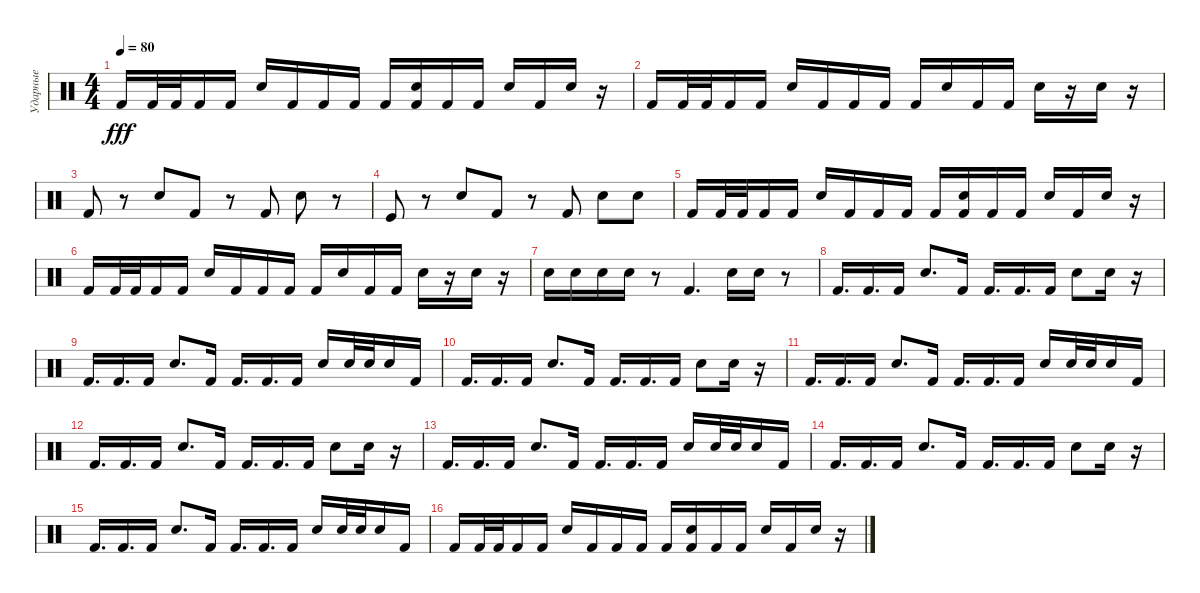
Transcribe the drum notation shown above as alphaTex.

\track ("Ударные" "Ударные") {instrument percussion}
\staff {score}
\articulation defaults
\ts (4 4)
\tempo 80
\clef neutral
\ks c "Kick (hit) 2".16{dy fff} "Kick (hit) 2".32 "Kick (hit) 2".32 "Kick (hit) 2".16 "Kick (hit) 2".16 "Electric Snare (hit)".16 "Kick (hit) 2".16 "Kick (hit) 2".16 "Kick (hit) 2".16 "Kick (hit) 2".16
("Kick (hit) 2" "Electric Snare (hit)").16 "Kick (hit) 2".16 "Kick (hit) 2".16 "Electric Snare (hit)".16 "Kick (hit) 2".16 "Electric Snare (hit)".16 r.16 |
"Kick (hit) 2".16 "Kick (hit) 2".32 "Kick (hit) 2".32 "Kick (hit) 2".16 "Kick (hit) 2".16 "Electric Snare (hit)".16 "Kick (hit) 2".16 "Kick (hit) 2".16 "Kick (hit) 2".16 "Kick (hit) 2".16 "Electric Snare (hit)".16 "Kick (hit) 2".16 "Kick (hit) 2".16 "Electric Snare (hit)".16 r.16 "Electric Snare (hit)".16 r.16 |
"Kick (hit) 2".8 r.8 "Electric Snare (hit)".8 "Kick (hit) 2".8 r.8 "Kick (hit) 2".8 "Electric Snare (hit)".8 r.8 |
"Kick (hit)".8 r.8 "Electric Snare (hit)".8 "Kick (hit) 2".8 r.8 "Kick (hit) 2".8 "Electric Snare (hit)".8 "Electric Snare (hit)".8 |
"Kick (hit) 2".16 "Kick (hit) 2".32 "Kick (hit) 2".32 "Kick (hit) 2".16 "Kick (hit) 2".16 "Electric Snare (hit)".16 "Kick (hit) 2".16 "Kick (hit) 2".16 "Kick (hit) 2".16 "Kick (hit) 2".16 ("Kick (hit) 2" "Electric Snare (hit)").16 "Kick (hit) 2".16 "Kick (hit) 2".16 "Electric Snare (hit)".16 "Kick (hit) 2".16 "Electric Snare (hit)".16 r.16 |
"Kick (hit) 2".16 "Kick (hit) 2".32 "Kick (hit) 2".32 "Kick (hit) 2".16 "Kick (hit) 2".16 "Electric Snare (hit)".16 "Kick (hit) 2".16 "Kick (hit) 2".16 "Kick (hit) 2".16 "Kick (hit) 2".16 "Electric Snare (hit)".16 "Kick (hit) 2".16 "Kick (hit) 2".16 "Electric Snare (hit)".16 r.16 "Electric Snare (hit)".16 r.16 |
"Electric Snare (hit)".16 "Electric Snare (hit)".16 "Electric Snare (hit)".16 "Electric Snare (hit)".16 r.8 "Kick (hit) 2".4{d} "Electric Snare (hit)".16 "Electric Snare (hit)".16 r.8 |
"Kick (hit) 2".16{d} "Kick (hit) 2".16{d} "Kick (hit) 2".16 "Electric Snare (hit)".8{d} "Kick (hit) 2".16 "Kick (hit) 2".16{d} "Kick (hit) 2".16{d} "Kick (hit) 2".16 "Electric Snare (hit)".8 "Electric Snare (hit)".16 r.16 |
"Kick (hit) 2".16{d} "Kick (hit) 2".16{d} "Kick (hit) 2".16 "Electric Snare (hit)".8{d} "Kick (hit) 2".16 "Kick (hit) 2".16{d} "Kick (hit) 2".16{d} "Kick (hit) 2".16 "Electric Snare (hit)".16 "Electric Snare (hit)".32 "Electric Snare (hit)".32 "Electric Snare (hit)".16 "Kick (hit) 2".16 |
"Kick (hit) 2".16{d} "Kick (hit) 2".16{d} "Kick (hit) 2".16 "Electric Snare (hit)".8{d} "Kick (hit) 2".16 "Kick (hit) 2".16{d} "Kick (hit) 2".16{d} "Kick (hit) 2".16 "Electric Snare (hit)".8 "Electric Snare (hit)".16 r.16 |
"Kick (hit) 2".16{d} "Kick (hit) 2".16{d} "Kick (hit) 2".16 "Electric Snare (hit)".8{d} "Kick (hit) 2".16 "Kick (hit) 2".16{d} "Kick (hit) 2".16{d} "Kick (hit) 2".16 "Electric Snare (hit)".16 "Electric Snare (hit)".32 "Electric Snare (hit)".32 "Electric Snare (hit)".16 "Kick (hit) 2".16 |
"Kick (hit) 2".16{d} "Kick (hit) 2".16{d} "Kick (hit) 2".16 "Electric Snare (hit)".8{d} "Kick (hit) 2".16 "Kick (hit) 2".16{d} "Kick (hit) 2".16{d} "Kick (hit) 2".16 "Electric Snare (hit)".8 "Electric Snare (hit)".16 r.16 |
"Kick (hit) 2".16{d} "Kick (hit) 2".16{d} "Kick (hit) 2".16 "Electric Snare (hit)".8{d} "Kick (hit) 2".16 "Kick (hit) 2".16{d} "Kick (hit) 2".16{d} "Kick (hit) 2".16 "Electric Snare (hit)".16 "Electric Snare (hit)".32 "Electric Snare (hit)".32 "Electric Snare (hit)".16 "Kick (hit) 2".16 |
"Kick (hit) 2".16{d} "Kick (hit) 2".16{d} "Kick (hit) 2".16 "Electric Snare (hit)".8{d} "Kick (hit) 2".16 "Kick (hit) 2".16{d} "Kick (hit) 2".16{d} "Kick (hit) 2".16 "Electric Snare (hit)".8 "Electric Snare (hit)".16 r.16 |
"Kick (hit) 2".16{d} "Kick (hit) 2".16{d} "Kick (hit) 2".16 "Electric Snare (hit)".8{d} "Kick (hit) 2".16 "Kick (hit) 2".16{d} "Kick (hit) 2".16{d} "Kick (hit) 2".16 "Electric Snare (hit)".16 "Electric Snare (hit)".32 "Electric Snare (hit)".32 "Electric Snare (hit)".16 "Kick (hit) 2".16 |
"Kick (hit) 2".16 "Kick (hit) 2".32 "Kick (hit) 2".32 "Kick (hit) 2".16 "Kick (hit) 2".16 "Electric Snare (hit)".16 "Kick (hit) 2".16 "Kick (hit) 2".16 "Kick (hit) 2".16 "Kick (hit) 2".16 ("Kick (hit) 2" "Electric Snare (hit)").16 "Kick (hit) 2".16 "Kick (hit) 2".16 "Electric Snare (hit)".16 "Kick (hit) 2".16 "Electric Snare (hit)".16 r.16
